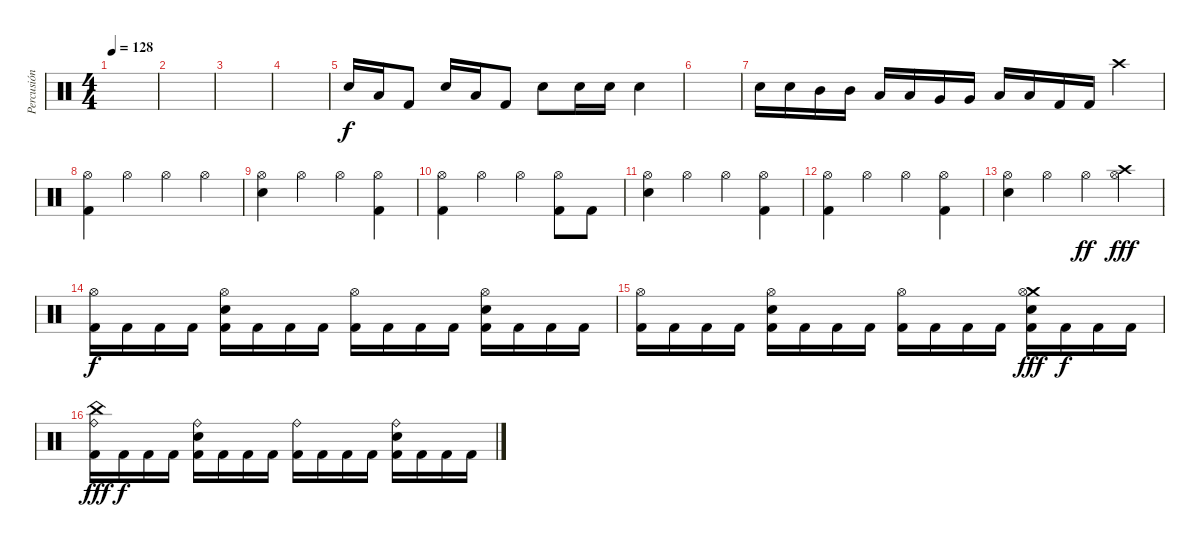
\track ("Percusión" "Percusión") {instrument percussion}
\staff {score}
\articulation defaults
\ts (4 4)
\tempo 128
\clef neutral
\ks c
|
|
|
|
"Snare (hit) 2".16 "Low Tom (hit)".16 "Kick (hit) 2".8 "Snare (hit) 2".16 "Low Tom (hit)".16 "Kick (hit) 2".8 "Snare (hit) 2".8 "Snare (hit) 2".16 "Snare (hit) 2".16 "Snare (hit) 2".4 |
|
"Snare (hit) 2".16 "Snare (hit) 2".16 "Mid Tom (hit)".16 "Mid Tom (hit)".16 "Low Tom (hit)".16 "Low Tom (hit)".16 "Very Low Tom (hit)".16 "Very Low Tom (hit)".16 "Low Floor Tom (hit)".16 "Low Floor Tom (hit)".16 "Kick (hit) 2".16 "Kick (hit) 2".16 "Crash high (hit)".4 |
("Hi-Hat (open)" "Kick (hit) 2").4 "Hi-Hat (open)".4 "Hi-Hat (open)".4 "Hi-Hat (open)".4 |
("Hi-Hat (open)" "Snare (hit) 2").4 "Hi-Hat (open)".4 "Hi-Hat (open)".4 ("Hi-Hat (open)" "Kick (hit) 2").4 |
("Hi-Hat (open)" "Kick (hit) 2").4 "Hi-Hat (open)".4 "Hi-Hat (open)".4 ("Hi-Hat (open)" "Kick (hit) 2").8 "Kick (hit) 2".8 |
("Hi-Hat (open)" "Snare (hit) 2").4 "Hi-Hat (open)".4 "Hi-Hat (open)".4 ("Hi-Hat (open)" "Kick (hit) 2").4 |
("Hi-Hat (open)" "Kick (hit) 2").4 "Hi-Hat (open)".4 "Hi-Hat (open)".4 ("Hi-Hat (open)" "Kick (hit) 2").4 |
("Hi-Hat (open)" "Snare (hit) 2").4 "Hi-Hat (open)".4 "Hi-Hat (open)".4{dy ff} ("Crash high (hit)" "Hi-Hat (open)").4{dy fff} |
("Hi-Hat (open)" "Kick (hit) 2").16{dy f} "Kick (hit) 2".16 "Kick (hit) 2".16 "Kick (hit) 2".16 ("Hi-Hat (open)" "Kick (hit) 2" "Snare (hit) 2").16 "Kick (hit) 2".16 "Kick (hit) 2".16 "Kick (hit) 2".16 ("Hi-Hat (open)" "Kick (hit) 2").16 "Kick (hit) 2".16 "Kick (hit) 2".16 "Kick (hit) 2".16 ("Hi-Hat (open)" "Kick (hit) 2" "Snare (hit) 2").16 "Kick (hit) 2".16 "Kick (hit) 2".16 "Kick (hit) 2".16 |
("Hi-Hat (open)" "Kick (hit) 2").16 "Kick (hit) 2".16 "Kick (hit) 2".16 "Kick (hit) 2".16 ("Hi-Hat (open)" "Kick (hit) 2" "Snare (hit) 2").16 "Kick (hit) 2".16 "Kick (hit) 2".16 "Kick (hit) 2".16 ("Hi-Hat (open)" "Kick (hit) 2").16 "Kick (hit) 2".16 "Kick (hit) 2".16 "Kick (hit) 2".16 ("Crash medium (hit)" "Hi-Hat (open)" "Kick (hit) 2" "Snare (hit) 2").16{dy fff} "Kick (hit) 2".16{dy f} "Kick (hit) 2".16 "Kick (hit) 2".16 |
("China (hit)" "Ride (bell)" "Kick (hit) 2").16{dy fff} "Kick (hit) 2".16{dy f} "Kick (hit) 2".16 "Kick (hit) 2".16 ("Ride (bell)" "Kick (hit) 2" "Snare (hit) 2").16 "Kick (hit) 2".16 "Kick (hit) 2".16 "Kick (hit) 2".16 ("Ride (bell)" "Kick (hit) 2").16 "Kick (hit) 2".16 "Kick (hit) 2".16 "Kick (hit) 2".16 ("Ride (bell)" "Kick (hit) 2" "Snare (hit) 2").16 "Kick (hit) 2".16 "Kick (hit) 2".16 "Kick (hit) 2".16
